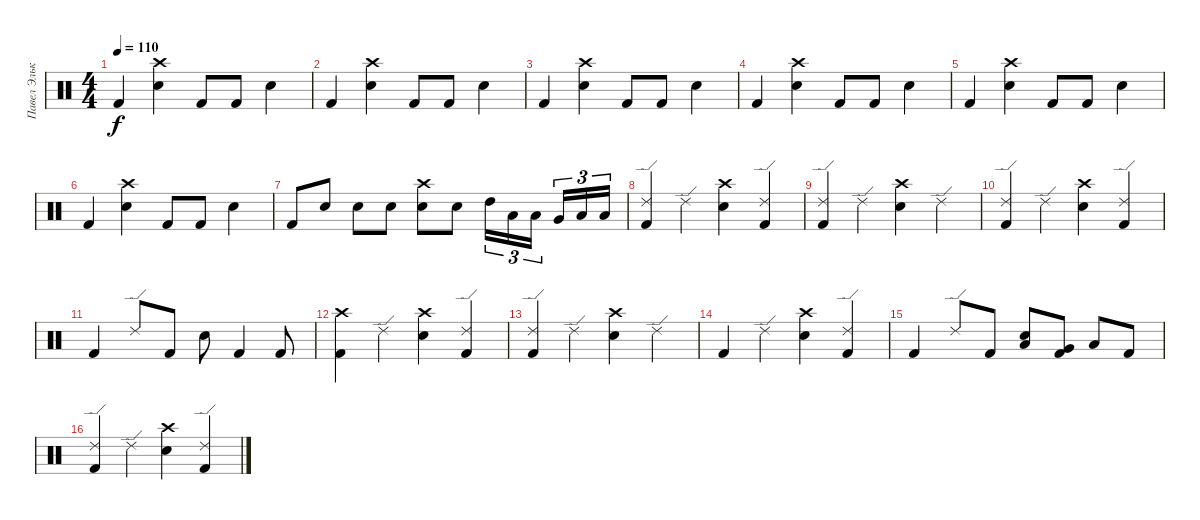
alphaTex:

\track ("Павел Элькинд" "Павел Эльк") {instrument percussion}
\staff {score}
\articulation defaults
\ts (4 4)
\tempo 110
\clef neutral
\ks c "Kick (hit) 2".4{dy f}
("Electric Snare (hit)" "Crash high (hit)").4 "Kick (hit) 2".8 "Kick (hit) 2".8 "Electric Snare (hit)".4 |
"Kick (hit) 2".4 ("Electric Snare (hit)" "Crash high (hit)").4 "Kick (hit) 2".8 "Kick (hit) 2".8 "Electric Snare (hit)".4 |
"Kick (hit) 2".4 ("Electric Snare (hit)" "Crash high (hit)").4 "Kick (hit) 2".8 "Kick (hit) 2".8 "Electric Snare (hit)".4 |
"Kick (hit) 2".4 ("Electric Snare (hit)" "Crash high (hit)").4 "Kick (hit) 2".8 "Kick (hit) 2".8 "Electric Snare (hit)".4 |
"Kick (hit) 2".4 ("Electric Snare (hit)" "Crash high (hit)").4 "Kick (hit) 2".8 "Kick (hit) 2".8 "Electric Snare (hit)".4 |
"Kick (hit) 2".4 ("Electric Snare (hit)" "Crash high (hit)").4 "Kick (hit) 2".8 "Kick (hit) 2".8 "Electric Snare (hit)".4 |
"Kick (hit) 2".8 "Electric Snare (hit)".8 "Electric Snare (hit)".8 "Electric Snare (hit)".8 ("Electric Snare (hit)" "Crash high (hit)").8 "Electric Snare (hit)".8 "High Tom (hit)".16{tu (3 2)} "Low Tom (hit)".16{tu (3 2)} "Low Tom (hit)".16{tu (3 2) beam splitsecondary} "Very Low Tom (hit)".16{tu (3 2)} "Low Floor Tom (hit)".16{tu (3 2)} "Low Floor Tom (hit)".16{tu (3 2)} |
("Kick (hit) 2" "Ride (edge) 2").4 "Ride (edge) 2".4 ("Electric Snare (hit)" "Crash high (hit)").4 ("Kick (hit) 2" "Ride (edge) 2").4 |
("Kick (hit) 2" "Ride (edge) 2").4 "Ride (edge) 2".4 ("Electric Snare (hit)" "Crash high (hit)").4 "Ride (edge) 2".4 |
("Kick (hit) 2" "Ride (edge) 2").4 "Ride (edge) 2".4 ("Electric Snare (hit)" "Crash high (hit)").4 ("Kick (hit) 2" "Ride (edge) 2").4 |
"Kick (hit) 2".4 "Ride (edge) 2".8 "Kick (hit) 2".8 "Electric Snare (hit)".8 "Kick (hit) 2".4 "Kick (hit) 2".8 |
("Kick (hit) 2" "Crash high (hit)").4 "Ride (edge) 2".4 ("Electric Snare (hit)" "Crash high (hit)").4 ("Kick (hit) 2" "Ride (edge) 2").4 |
("Kick (hit) 2" "Ride (edge) 2").4 "Ride (edge) 2".4 ("Electric Snare (hit)" "Crash high (hit)").4 "Ride (edge) 2".4 |
"Kick (hit) 2".4 "Ride (edge) 2".4 ("Electric Snare (hit)" "Crash high (hit)").4 ("Kick (hit) 2" "Ride (edge) 2").4 |
"Kick (hit) 2".4 "Ride (edge) 2".8 "Kick (hit) 2".8 ("Electric Snare (hit)" "Low Tom (hit)").8 ("Kick (hit) 2" "Very Low Tom (hit)").8 "Low Floor Tom (hit)".8 "Kick (hit) 2".8 |
("Kick (hit) 2" "Ride (edge) 2").4 "Ride (edge) 2".4 ("Electric Snare (hit)" "Crash high (hit)").4 ("Kick (hit) 2" "Ride (edge) 2").4
